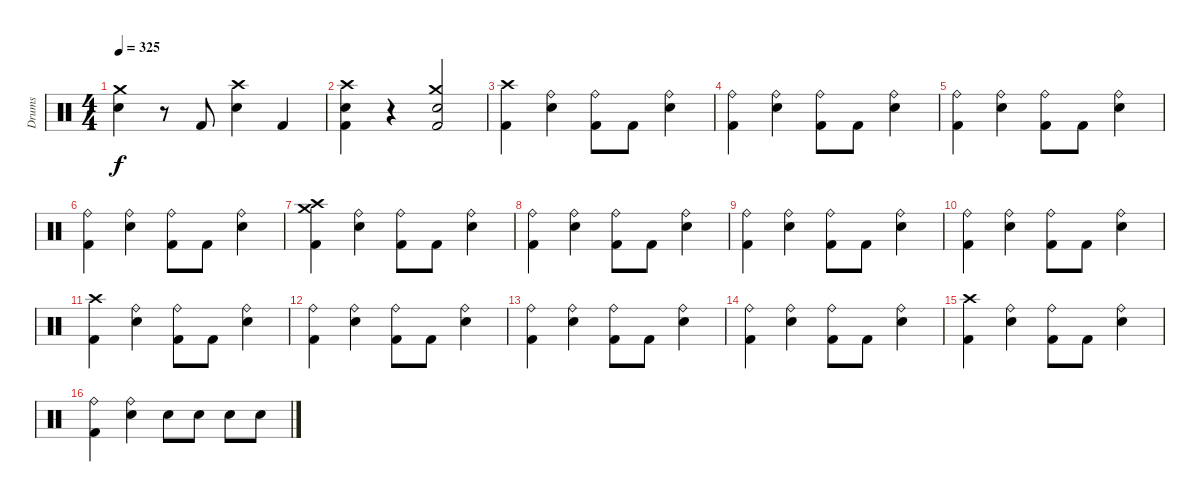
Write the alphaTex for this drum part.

\track ("Drums" "Drums") {instrument percussion}
\staff {score}
\articulation defaults
\ts (4 4)
\tempo 325
\clef neutral
\ks c
("Electric Snare (hit)" "Crash medium (hit)").4{dy f} r.8 "Kick (hit) 2".8 ("Crash high (hit)" "Electric Snare (hit)").4 "Kick (hit) 2".4 |
("Electric Snare (hit)" "Kick (hit) 2" "Crash high (hit)").4 r.4 ("Electric Snare (hit)" "Kick (hit) 2" "Crash medium (hit)").2 |
("Crash high (hit)" "Kick (hit) 2").4 ("Electric Snare (hit)" "Ride (bell)").4 ("Kick (hit) 2" "Ride (bell)").8 "Kick (hit) 2".8 ("Electric Snare (hit)" "Ride (bell)").4 |
("Kick (hit) 2" "Ride (bell)").4 ("Electric Snare (hit)" "Ride (bell)").4 ("Kick (hit) 2" "Ride (bell)").8 "Kick (hit) 2".8 ("Electric Snare (hit)" "Ride (bell)").4 |
("Kick (hit) 2" "Ride (bell)").4 ("Electric Snare (hit)" "Ride (bell)").4 ("Kick (hit) 2" "Ride (bell)").8 "Kick (hit) 2".8 ("Electric Snare (hit)" "Ride (bell)").4 |
("Kick (hit) 2" "Ride (bell)").4 ("Electric Snare (hit)" "Ride (bell)").4 ("Kick (hit) 2" "Ride (bell)").8 "Kick (hit) 2".8 ("Electric Snare (hit)" "Ride (bell)").4 |
("Crash high (hit)" "Crash medium (hit)" "Kick (hit) 2").4 ("Electric Snare (hit)" "Ride (bell)").4 ("Kick (hit) 2" "Ride (bell)").8 "Kick (hit) 2".8 ("Electric Snare (hit)" "Ride (bell)").4 |
("Kick (hit) 2" "Ride (bell)").4 ("Electric Snare (hit)" "Ride (bell)").4 ("Kick (hit) 2" "Ride (bell)").8 "Kick (hit) 2".8 ("Electric Snare (hit)" "Ride (bell)").4 |
("Kick (hit) 2" "Ride (bell)").4 ("Electric Snare (hit)" "Ride (bell)").4 ("Kick (hit) 2" "Ride (bell)").8 "Kick (hit) 2".8 ("Electric Snare (hit)" "Ride (bell)").4 |
("Kick (hit) 2" "Ride (bell)").4 ("Electric Snare (hit)" "Ride (bell)").4 ("Kick (hit) 2" "Ride (bell)").8 "Kick (hit) 2".8 ("Electric Snare (hit)" "Ride (bell)").4 |
("Crash high (hit)" "Kick (hit) 2").4 ("Electric Snare (hit)" "Ride (bell)").4 ("Kick (hit) 2" "Ride (bell)").8 "Kick (hit) 2".8 ("Electric Snare (hit)" "Ride (bell)").4 |
("Kick (hit) 2" "Ride (bell)").4 ("Electric Snare (hit)" "Ride (bell)").4 ("Kick (hit) 2" "Ride (bell)").8 "Kick (hit) 2".8 ("Electric Snare (hit)" "Ride (bell)").4 |
("Kick (hit) 2" "Ride (bell)").4 ("Electric Snare (hit)" "Ride (bell)").4 ("Kick (hit) 2" "Ride (bell)").8 "Kick (hit) 2".8 ("Electric Snare (hit)" "Ride (bell)").4 |
("Kick (hit) 2" "Ride (bell)").4 ("Electric Snare (hit)" "Ride (bell)").4 ("Kick (hit) 2" "Ride (bell)").8 "Kick (hit) 2".8 ("Electric Snare (hit)" "Ride (bell)").4 |
("Crash high (hit)" "Kick (hit) 2").4 ("Electric Snare (hit)" "Ride (bell)").4 ("Kick (hit) 2" "Ride (bell)").8 "Kick (hit) 2".8 ("Electric Snare (hit)" "Ride (bell)").4 |
("Kick (hit) 2" "Ride (bell)").4 ("Electric Snare (hit)" "Ride (bell)").4 "Electric Snare (hit)".8 "Electric Snare (hit)".8 "Electric Snare (hit)".8 "Electric Snare (hit)".8
